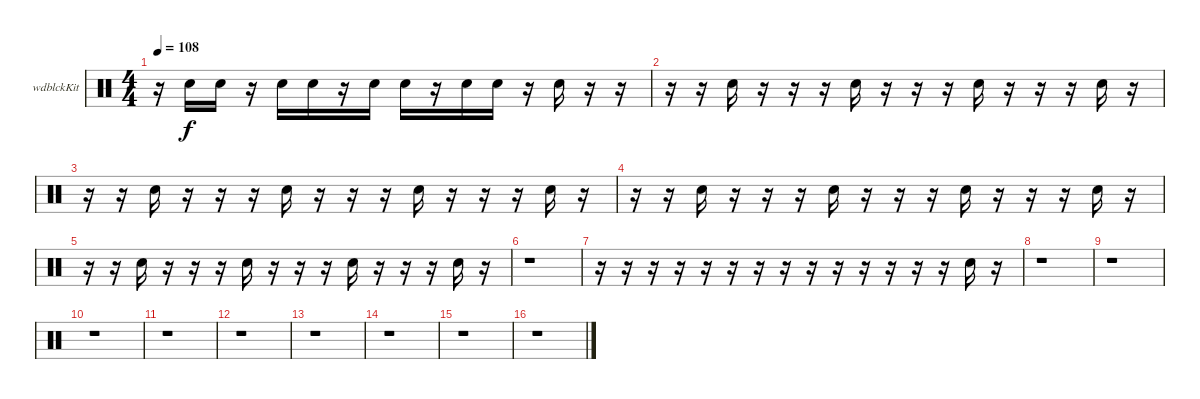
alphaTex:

\bracketExtendMode groupsimilarinstruments
\firstSystemTrackNameOrientation horizontal
\otherSystemsTrackNameOrientation horizontal
\track ("Woodblock" "wdblckKit") {instrument percussion}
\staff {score}
\articulation defaults
\ts (4 4)
\tempo 108
\clef neutral
\ks c
r.16{dy f} "Snare (hit) 2".16 "Snare (hit) 2".16 r.16 "Snare (hit) 2".16 "Snare (hit) 2".16 r.16 "Snare (hit) 2".16 "Snare (hit) 2".16 r.16 "Snare (hit) 2".16 "Snare (hit) 2".16 r.16 "Snare (hit) 2".16 r.16 r.16 |
r.16 r.16 "Snare (hit) 2".16 r.16 r.16 r.16 "Snare (hit) 2".16 r.16 r.16 r.16 "Snare (hit) 2".16 r.16 r.16 r.16 "Snare (hit) 2".16 r.16 |
r.16 r.16 "Snare (hit) 2".16 r.16 r.16 r.16 "Snare (hit) 2".16 r.16 r.16 r.16 "Snare (hit) 2".16 r.16 r.16 r.16 "Snare (hit) 2".16 r.16 |
r.16 r.16 "Snare (hit) 2".16 r.16 r.16 r.16 "Snare (hit) 2".16 r.16 r.16 r.16 "Snare (hit) 2".16 r.16 r.16 r.16 "Snare (hit) 2".16 r.16 |
r.16 r.16 "Snare (hit) 2".16 r.16 r.16 r.16 "Snare (hit) 2".16 r.16 r.16 r.16 "Snare (hit) 2".16 r.16 r.16 r.16 "Snare (hit) 2".16 r.16 |
r.1 |
r.16 r.16 r.16 r.16 r.16 r.16 r.16 r.16 r.16 r.16 r.16 r.16 r.16 r.16 "Snare (hit) 2".16 r.16 |
r.1 |
r.1 |
r.1 |
r.1 |
r.1 |
r.1 |
r.1 |
r.1 |
r.1
